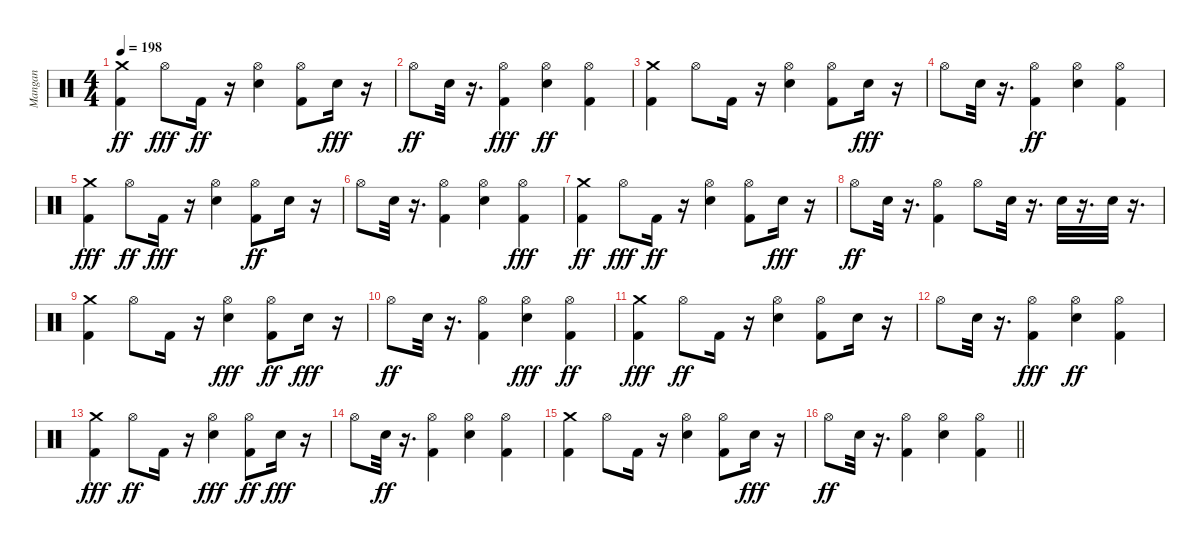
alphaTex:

\track ("Mangan" "Mangan") {instrument percussion}
\staff {score}
\articulation defaults
\ts (4 4)
\tempo 198
\clef neutral
\ks c
("Kick (hit) 2" "Crash medium (hit)").4{dy ff} "Hi-Hat (open)".8{dy fff} "Kick (hit) 2".16{dy ff} r.16 ("Snare (hit) 2" "Hi-Hat (open)").4 ("Kick (hit) 2" "Hi-Hat (open)").8 "Snare (hit) 2".16{dy fff} r.16 |
"Hi-Hat (open)".8{dy ff} "Snare (hit) 2".32 r.16{d} ("Kick (hit) 2" "Hi-Hat (open)").4{dy fff} ("Snare (hit) 2" "Hi-Hat (open)").4{dy ff} ("Kick (hit) 2" "Hi-Hat (open)").4 |
("Kick (hit) 2" "Crash medium (hit)").4 "Hi-Hat (open)".8 "Kick (hit) 2".16 r.16 ("Snare (hit) 2" "Hi-Hat (open)").4 ("Kick (hit) 2" "Hi-Hat (open)").8 "Snare (hit) 2".16{dy fff} r.16 |
"Hi-Hat (open)".8 "Snare (hit) 2".32 r.16{d} ("Kick (hit) 2" "Hi-Hat (open)").4{dy ff} ("Snare (hit) 2" "Hi-Hat (open)").4 ("Kick (hit) 2" "Hi-Hat (open)").4 |
("Kick (hit) 2" "Crash medium (hit)").4{dy fff} "Hi-Hat (open)".8{dy ff} "Kick (hit) 2".16{dy fff} r.16 ("Snare (hit) 2" "Hi-Hat (open)").4 ("Kick (hit) 2" "Hi-Hat (open)").8{dy ff} "Snare (hit) 2".16 r.16 |
"Hi-Hat (open)".8 "Snare (hit) 2".32 r.16{d} ("Kick (hit) 2" "Hi-Hat (open)").4 ("Snare (hit) 2" "Hi-Hat (open)").4 ("Kick (hit) 2" "Hi-Hat (open)").4{dy fff} |
("Kick (hit) 2" "Crash medium (hit)").4{dy ff} "Hi-Hat (open)".8{dy fff} "Kick (hit) 2".16{dy ff} r.16 ("Snare (hit) 2" "Hi-Hat (open)").4 ("Kick (hit) 2" "Hi-Hat (open)").8 "Snare (hit) 2".16{dy fff} r.16 |
"Hi-Hat (open)".8{dy ff} "Snare (hit) 2".32 r.16{d} ("Kick (hit) 2" "Hi-Hat (open)").4 "Hi-Hat (open)".8 "Snare (hit) 2".32 r.16{d} "Snare (hit) 2".32 r.16{d} "Snare (hit) 2".32 r.16{d} |
("Kick (hit) 2" "Crash medium (hit)").4 "Hi-Hat (open)".8 "Kick (hit) 2".16 r.16 ("Snare (hit) 2" "Hi-Hat (open)").4{dy fff} ("Kick (hit) 2" "Hi-Hat (open)").8{dy ff} "Snare (hit) 2".16{dy fff} r.16 |
"Hi-Hat (open)".8{dy ff} "Snare (hit) 2".32 r.16{d} ("Kick (hit) 2" "Hi-Hat (open)").4 ("Snare (hit) 2" "Hi-Hat (open)").4{dy fff} ("Kick (hit) 2" "Hi-Hat (open)").4{dy ff} |
("Kick (hit) 2" "Crash medium (hit)").4{dy fff} "Hi-Hat (open)".8{dy ff} "Kick (hit) 2".16 r.16 ("Snare (hit) 2" "Hi-Hat (open)").4 ("Kick (hit) 2" "Hi-Hat (open)").8 "Snare (hit) 2".16 r.16 |
"Hi-Hat (open)".8 "Snare (hit) 2".32 r.16{d} ("Kick (hit) 2" "Hi-Hat (open)").4{dy fff} ("Snare (hit) 2" "Hi-Hat (open)").4{dy ff} ("Kick (hit) 2" "Hi-Hat (open)").4 |
("Kick (hit) 2" "Crash medium (hit)").4{dy fff} "Hi-Hat (open)".8{dy ff} "Kick (hit) 2".16 r.16 ("Snare (hit) 2" "Hi-Hat (open)").4{dy fff} ("Kick (hit) 2" "Hi-Hat (open)").8{dy ff} "Snare (hit) 2".16{dy fff} r.16 |
"Hi-Hat (open)".8 "Snare (hit) 2".32{dy ff} r.16{d} ("Kick (hit) 2" "Hi-Hat (open)").4 ("Snare (hit) 2" "Hi-Hat (open)").4 ("Kick (hit) 2" "Hi-Hat (open)").4 |
("Kick (hit) 2" "Crash medium (hit)").4 "Hi-Hat (open)".8 "Kick (hit) 2".16 r.16 ("Snare (hit) 2" "Hi-Hat (open)").4 ("Kick (hit) 2" "Hi-Hat (open)").8 "Snare (hit) 2".16{dy fff} r.16 |
\barLineRight lightlight "Hi-Hat (open)".8{dy ff} "Snare (hit) 2".32
r.16{d} ("Kick (hit) 2" "Hi-Hat (open)").4 ("Snare (hit) 2" "Hi-Hat (open)").4 ("Kick (hit) 2" "Hi-Hat (open)").4
